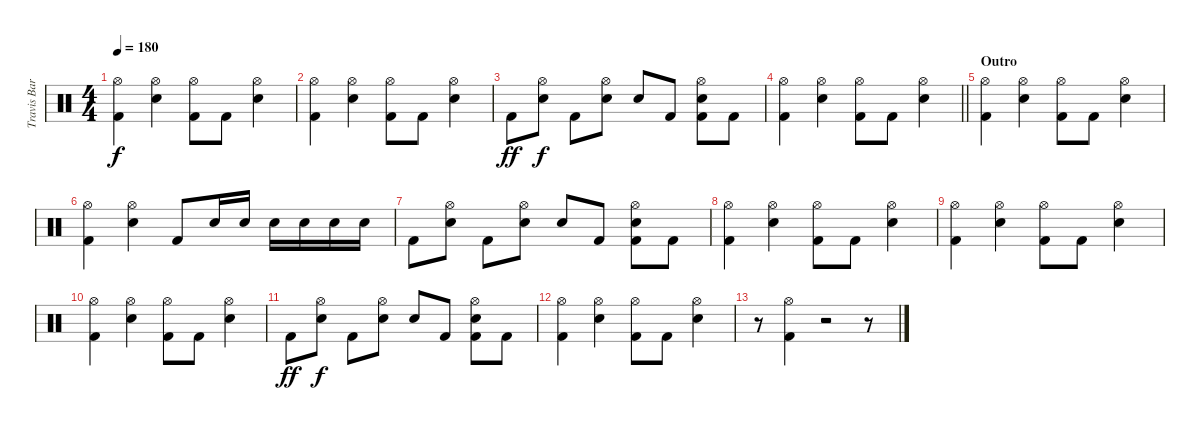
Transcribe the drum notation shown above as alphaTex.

\track ("Travis Barker" "Travis Bar") {instrument percussion}
\staff {score}
\articulation defaults
\ts (4 4)
\tempo 180
\clef neutral
\ks c
("Hi-Hat (open)" "Kick (hit) 2").4{dy f} ("Hi-Hat (open)" "Electric Snare (hit)").4 ("Hi-Hat (open)" "Kick (hit) 2").8 "Kick (hit) 2".8 ("Hi-Hat (open)" "Electric Snare (hit)").4 |
("Hi-Hat (open)" "Kick (hit) 2").4 ("Hi-Hat (open)" "Electric Snare (hit)").4 ("Hi-Hat (open)" "Kick (hit) 2").8 "Kick (hit) 2".8 ("Hi-Hat (open)" "Electric Snare (hit)").4 |
"Kick (hit) 2".8{dy ff} ("Hi-Hat (open)" "Electric Snare (hit)").8{dy f} "Kick (hit) 2".8 ("Hi-Hat (open)" "Electric Snare (hit)").8 "Electric Snare (hit)".8 "Kick (hit) 2".8 ("Hi-Hat (open)" "Electric Snare (hit)" "Kick (hit) 2").8 "Kick (hit) 2".8 |
\barLineRight lightlight
("Hi-Hat (open)" "Kick (hit) 2").4 ("Hi-Hat (open)" "Electric Snare (hit)").4 ("Hi-Hat (open)" "Kick (hit) 2").8 "Kick (hit) 2".8 ("Hi-Hat (open)" "Electric Snare (hit)").4 |
\section ("" "Outro")
("Hi-Hat (open)" "Kick (hit) 2").4 ("Hi-Hat (open)" "Electric Snare (hit)").4 ("Hi-Hat (open)" "Kick (hit) 2").8 "Kick (hit) 2".8 ("Hi-Hat (open)" "Electric Snare (hit)").4 |
("Hi-Hat (open)" "Kick (hit) 2").4 ("Hi-Hat (open)" "Electric Snare (hit)").4 "Kick (hit) 2".8 "Electric Snare (hit)".16 "Electric Snare (hit)".16 "Electric Snare (hit)".16 "Electric Snare (hit)".16 "Electric Snare (hit)".16 "Electric Snare (hit)".16 |
"Kick (hit) 2".8 ("Hi-Hat (open)" "Electric Snare (hit)").8 "Kick (hit) 2".8 ("Hi-Hat (open)" "Electric Snare (hit)").8 "Electric Snare (hit)".8 "Kick (hit) 2".8 ("Hi-Hat (open)" "Electric Snare (hit)" "Kick (hit) 2").8 "Kick (hit) 2".8 |
("Hi-Hat (open)" "Kick (hit) 2").4 ("Hi-Hat (open)" "Electric Snare (hit)").4 ("Hi-Hat (open)" "Kick (hit) 2").8 "Kick (hit) 2".8 ("Hi-Hat (open)" "Electric Snare (hit)").4 |
("Hi-Hat (open)" "Kick (hit) 2").4 ("Hi-Hat (open)" "Electric Snare (hit)").4 ("Hi-Hat (open)" "Kick (hit) 2").8 "Kick (hit) 2".8 ("Hi-Hat (open)" "Electric Snare (hit)").4 |
("Hi-Hat (open)" "Kick (hit) 2").4 ("Hi-Hat (open)" "Electric Snare (hit)").4 ("Hi-Hat (open)" "Kick (hit) 2").8 "Kick (hit) 2".8 ("Hi-Hat (open)" "Electric Snare (hit)").4 |
"Kick (hit) 2".8{dy ff} ("Hi-Hat (open)" "Electric Snare (hit)").8{dy f} "Kick (hit) 2".8 ("Hi-Hat (open)" "Electric Snare (hit)").8 "Electric Snare (hit)".8 "Kick (hit) 2".8 ("Hi-Hat (open)" "Electric Snare (hit)" "Kick (hit) 2").8 "Kick (hit) 2".8 |
("Hi-Hat (open)" "Kick (hit) 2").4 ("Hi-Hat (open)" "Electric Snare (hit)").4 ("Hi-Hat (open)" "Kick (hit) 2").8 "Kick (hit) 2".8 ("Hi-Hat (open)" "Electric Snare (hit)").4 |
r.8 ("Hi-Hat (open)" "Kick (hit) 2").4 r.2 r.8
